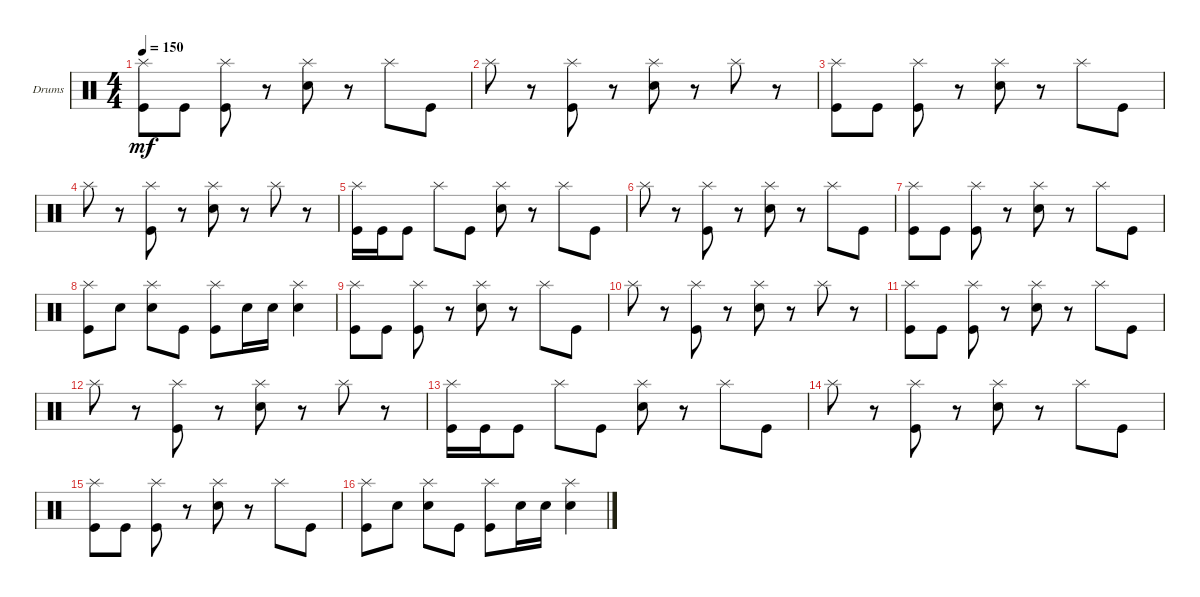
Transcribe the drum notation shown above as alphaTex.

\bracketExtendMode groupsimilarinstruments
\firstSystemTrackNameOrientation horizontal
\otherSystemsTrackNameOrientation horizontal
\track ("Drumkit" "Drums") {instrument percussion}
\staff {score}
\articulation defaults
\ts (4 4)
\tempo 150
\clef neutral
\ks c
("Kick (hit)" "Splash (hit)").8{dy mf} "Kick (hit)".8 ("Kick (hit)" "Splash (hit)").8 r.8 ("Snare (hit) 2" "Splash (hit)").8 r.8 "Splash (hit)".8 "Kick (hit)".8 |
"Splash (hit)".8 r.8 ("Kick (hit)" "Splash (hit)").8 r.8 ("Snare (hit) 2" "Splash (hit)").8 r.8 "Splash (hit)".8 r.8 |
("Kick (hit)" "Splash (hit)").8 "Kick (hit)".8 ("Kick (hit)" "Splash (hit)").8 r.8 ("Snare (hit) 2" "Splash (hit)").8 r.8 "Splash (hit)".8 "Kick (hit)".8 |
"Splash (hit)".8 r.8 ("Kick (hit)" "Splash (hit)").8 r.8 ("Snare (hit) 2" "Splash (hit)").8 r.8 "Splash (hit)".8 r.8 |
("Kick (hit)" "Splash (hit)").16 "Kick (hit)".16 "Kick (hit)".8 "Splash (hit)".8 "Kick (hit)".8 ("Snare (hit) 2" "Splash (hit)").8 r.8 "Splash (hit)".8 "Kick (hit)".8 |
"Splash (hit)".8 r.8 ("Kick (hit)" "Splash (hit)").8 r.8 ("Snare (hit) 2" "Splash (hit)").8 r.8 "Splash (hit)".8 "Kick (hit)".8 |
("Kick (hit)" "Splash (hit)").8 "Kick (hit)".8 ("Kick (hit)" "Splash (hit)").8 r.8 ("Snare (hit) 2" "Splash (hit)").8 r.8 "Splash (hit)".8 "Kick (hit)".8 |
("Splash (hit)" "Kick (hit)").8 "Snare (hit) 2".8 ("Splash (hit)" "Snare (hit) 2").8 "Kick (hit)".8 ("Splash (hit)" "Kick (hit)").8 "Snare (hit) 2".16 "Snare (hit) 2".16 ("Snare (hit) 2" "Splash (hit)").4 |
("Kick (hit)" "Splash (hit)").8 "Kick (hit)".8 ("Kick (hit)" "Splash (hit)").8 r.8 ("Snare (hit) 2" "Splash (hit)").8 r.8 "Splash (hit)".8 "Kick (hit)".8 |
"Splash (hit)".8 r.8 ("Kick (hit)" "Splash (hit)").8 r.8 ("Snare (hit) 2" "Splash (hit)").8 r.8 "Splash (hit)".8 r.8 |
("Kick (hit)" "Splash (hit)").8 "Kick (hit)".8 ("Kick (hit)" "Splash (hit)").8 r.8 ("Snare (hit) 2" "Splash (hit)").8 r.8 "Splash (hit)".8 "Kick (hit)".8 |
"Splash (hit)".8 r.8 ("Kick (hit)" "Splash (hit)").8 r.8 ("Snare (hit) 2" "Splash (hit)").8 r.8 "Splash (hit)".8 r.8 |
("Kick (hit)" "Splash (hit)").16 "Kick (hit)".16 "Kick (hit)".8 "Splash (hit)".8 "Kick (hit)".8 ("Snare (hit) 2" "Splash (hit)").8 r.8 "Splash (hit)".8 "Kick (hit)".8 |
"Splash (hit)".8 r.8 ("Kick (hit)" "Splash (hit)").8 r.8 ("Snare (hit) 2" "Splash (hit)").8 r.8 "Splash (hit)".8 "Kick (hit)".8 |
("Kick (hit)" "Splash (hit)").8 "Kick (hit)".8 ("Kick (hit)" "Splash (hit)").8 r.8 ("Snare (hit) 2" "Splash (hit)").8 r.8 "Splash (hit)".8 "Kick (hit)".8 |
("Splash (hit)" "Kick (hit)").8 "Snare (hit) 2".8 ("Splash (hit)" "Snare (hit) 2").8 "Kick (hit)".8 ("Splash (hit)" "Kick (hit)").8 "Snare (hit) 2".16 "Snare (hit) 2".16 ("Snare (hit) 2" "Splash (hit)").4
